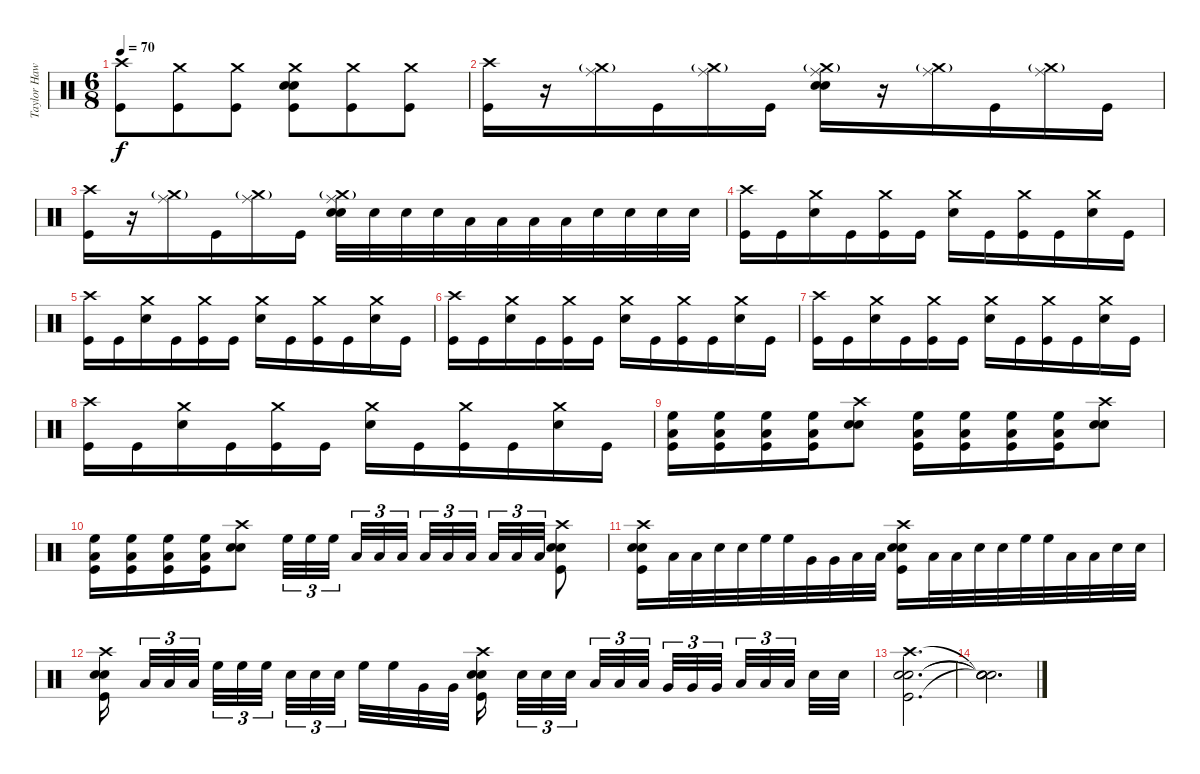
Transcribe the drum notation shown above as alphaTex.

\track ("Taylor Hawkins - Drums" "Taylor Haw") {instrument percussion}
\staff {score}
\articulation defaults
\ts (6 8)
\tempo 70
\clef neutral
\ks c
("Crash high (hit)" "Kick (hit)").8{dy f} ("Crash medium (hit)" "Kick (hit)").8 ("Crash medium (hit)" "Kick (hit)").8 ("Crash medium (hit)" "Electric Snare (hit)" "Snare (hit) 2" "Kick (hit)").8 ("Crash medium (hit)" "Kick (hit)").8 ("Crash medium (hit)" "Kick (hit)").8 |
("Crash high (hit)" "Kick (hit)").16 r.16 ("Crash medium (hit)"{g} "Ride (middle)").16 "Kick (hit)".16 ("Crash medium (hit)"{g} "Ride (middle)").16 "Kick (hit)".16 ("Crash medium (hit)"{g} "Ride (middle)" "Electric Snare (hit)" "Snare (hit) 2").16 r.16 ("Crash medium (hit)"{g} "Ride (middle)").16 "Kick (hit)".16 ("Crash medium (hit)"{g} "Ride (middle)").16 "Kick (hit)".16 |
("Crash high (hit)" "Kick (hit)").16 r.16 ("Crash medium (hit)"{g} "Ride (middle)").16 "Kick (hit)".16 ("Crash medium (hit)"{g} "Ride (middle)").16 "Kick (hit)".16 ("Crash medium (hit)"{g} "Ride (middle)" "Electric Snare (hit)" "Snare (hit) 2").32 "Electric Snare (hit)".32 "Electric Snare (hit)".32 "Electric Snare (hit)".32 "Low Tom (hit)".32 "Low Tom (hit)".32 "Low Tom (hit)".32 "Low Tom (hit)".32 "Electric Snare (hit)".32 "Electric Snare (hit)".32 "Electric Snare (hit)".32 "Electric Snare (hit)".32 |
("Crash high (hit)" "Kick (hit)").16 "Kick (hit)".16 ("Crash medium (hit)" "Electric Snare (hit)").16 "Kick (hit)".16 ("Crash medium (hit)" "Kick (hit)").16 "Kick (hit)".16 ("Crash medium (hit)" "Electric Snare (hit)").16 "Kick (hit)".16 ("Crash medium (hit)" "Kick (hit)").16 "Kick (hit)".16 ("Crash medium (hit)" "Electric Snare (hit)").16 "Kick (hit)".16 |
("Crash high (hit)" "Kick (hit)").16 "Kick (hit)".16 ("Crash medium (hit)" "Electric Snare (hit)").16 "Kick (hit)".16 ("Crash medium (hit)" "Kick (hit)").16 "Kick (hit)".16 ("Crash medium (hit)" "Electric Snare (hit)").16 "Kick (hit)".16 ("Crash medium (hit)" "Kick (hit)").16 "Kick (hit)".16 ("Crash medium (hit)" "Electric Snare (hit)").16 "Kick (hit)".16 |
("Crash high (hit)" "Kick (hit)").16 "Kick (hit)".16 ("Crash medium (hit)" "Electric Snare (hit)").16 "Kick (hit)".16 ("Crash medium (hit)" "Kick (hit)").16 "Kick (hit)".16 ("Crash medium (hit)" "Electric Snare (hit)").16 "Kick (hit)".16 ("Crash medium (hit)" "Kick (hit)").16 "Kick (hit)".16 ("Crash medium (hit)" "Electric Snare (hit)").16 "Kick (hit)".16 |
("Crash high (hit)" "Kick (hit)").16 "Kick (hit)".16 ("Crash medium (hit)" "Electric Snare (hit)").16 "Kick (hit)".16 ("Crash medium (hit)" "Kick (hit)").16 "Kick (hit)".16 ("Crash medium (hit)" "Electric Snare (hit)").16 "Kick (hit)".16 ("Crash medium (hit)" "Kick (hit)").16 "Kick (hit)".16 ("Crash medium (hit)" "Electric Snare (hit)").16 "Kick (hit)".16 |
("Crash high (hit)" "Kick (hit)").16 "Kick (hit)".16 ("Crash medium (hit)" "Electric Snare (hit)").16 "Kick (hit)".16 ("Crash medium (hit)" "Kick (hit)").16 "Kick (hit)".16 ("Crash medium (hit)" "Electric Snare (hit)").16 "Kick (hit)".16 ("Crash medium (hit)" "Kick (hit)").16 "Kick (hit)".16 ("Crash medium (hit)" "Electric Snare (hit)").16 "Kick (hit)".16 |
("High Floor Tom (hit)" "Low Floor Tom (hit)" "Kick (hit)").16 ("High Floor Tom (hit)" "Low Floor Tom (hit)" "Kick (hit)").16 ("High Floor Tom (hit)" "Low Floor Tom (hit)" "Kick (hit)").16 ("High Floor Tom (hit)" "Low Floor Tom (hit)" "Kick (hit)").16 ("Crash high (hit)" "Snare (hit) 2" "Electric Snare (hit)").8 ("High Floor Tom (hit)" "Low Floor Tom (hit)" "Kick (hit)").16 ("High Floor Tom (hit)" "Low Floor Tom (hit)" "Kick (hit)").16 ("High Floor Tom (hit)" "Low Floor Tom (hit)" "Kick (hit)").16 ("High Floor Tom (hit)" "Low Floor Tom (hit)" "Kick (hit)").16 ("Crash high (hit)" "Snare (hit) 2" "Electric Snare (hit)").8 |
("High Floor Tom (hit)" "Low Floor Tom (hit)" "Kick (hit)").16 ("High Floor Tom (hit)" "Low Floor Tom (hit)" "Kick (hit)").16 ("High Floor Tom (hit)" "Low Floor Tom (hit)" "Kick (hit)").16 ("High Floor Tom (hit)" "Low Floor Tom (hit)" "Kick (hit)").16 ("Crash high (hit)" "Snare (hit) 2" "Electric Snare (hit)").8 "High Floor Tom (hit)".32{tu (3 2)} "High Floor Tom (hit)".32{tu (3 2)} "High Floor Tom (hit)".32{tu (3 2) beam splitsecondary} "Low Tom (hit)".32{tu (3 2)} "Low Tom (hit)".32{tu (3 2)} "Low Tom (hit)".32{tu (3 2) beam splitsecondary} "Low Tom (hit)".32{tu (3 2)} "Low Tom (hit)".32{tu (3 2)} "Low Tom (hit)".32{tu (3 2) beam splitsecondary} "Low Floor Tom (hit)".32{tu (3 2)} "Low Floor Tom (hit)".32{tu (3 2)} "Low Floor Tom (hit)".32{tu (3 2)} ("Crash high (hit)" "Snare (hit) 2" "Electric Snare (hit)" "Kick (hit)").8 |
("Crash high (hit)" "Snare (hit) 2" "Electric Snare (hit)" "Kick (hit)").16 "Low Tom (hit)".32 "Low Tom (hit)".32 "Electric Snare (hit)".32 "Electric Snare (hit)".32 "High Floor Tom (hit)".32 "High Floor Tom (hit)".32 "Very Low Tom (hit)".32 "Very Low Tom (hit)".32 "Low Floor Tom (hit)".32 "Low Floor Tom (hit)".32 ("Crash high (hit)" "Snare (hit) 2" "Electric Snare (hit)" "Kick (hit)").16 "Low Tom (hit)".32 "Low Tom (hit)".32 "Electric Snare (hit)".32 "Electric Snare (hit)".32 "High Floor Tom (hit)".32 "High Floor Tom (hit)".32 "Low Floor Tom (hit)".32 "Low Floor Tom (hit)".32 "Electric Snare (hit)".32 "Electric Snare (hit)".32 |
("Crash high (hit)" "Snare (hit) 2" "Electric Snare (hit)" "Kick (hit)").16{beam splitsecondary} "Low Tom (hit)".32{tu (3 2)} "Low Tom (hit)".32{tu (3 2)} "Low Tom (hit)".32{tu (3 2) beam splitsecondary} "High Floor Tom (hit)".32{tu (3 2)} "High Floor Tom (hit)".32{tu (3 2)} "High Floor Tom (hit)".32{tu (3 2) beam splitsecondary} "Electric Snare (hit)".32{tu (3 2)} "Electric Snare (hit)".32{tu (3 2)} "Electric Snare (hit)".32{tu (3 2) beam splitsecondary} "High Floor Tom (hit)".32 "High Floor Tom (hit)".32 "Very Low Tom (hit)".32 "Very Low Tom (hit)".32 ("Crash high (hit)" "Snare (hit) 2" "Electric Snare (hit)" "Kick (hit)").16{beam splitsecondary} "Electric Snare (hit)".32{tu (3 2)} "Electric Snare (hit)".32{tu (3 2)} "Electric Snare (hit)".32{tu (3 2) beam splitsecondary} "Low Tom (hit)".32{tu (3 2)} "Low Tom (hit)".32{tu (3 2)} "Low Tom (hit)".32{tu (3 2) beam splitsecondary} "Very Low Tom (hit)".32{tu (3 2)} "Very Low Tom (hit)".32{tu (3 2)} "Very Low Tom (hit)".32{tu (3 2) beam splitsecondary} "Low Floor Tom (hit)".32{tu (3 2)} "Low Floor Tom (hit)".32{tu (3 2)} "Low Floor Tom (hit)".32{tu (3 2) beam splitsecondary} "Electric Snare (hit)".32 "Electric Snare (hit)".32 |
("Crash high (hit)" "Snare (hit) 2" "Electric Snare (hit)" "Kick (hit)").2{d} |
("Snare (hit)"{t} "Snare (hit)"{t} "Snare (hit)"{t} "Snare (hit)"{t}).2{d}
